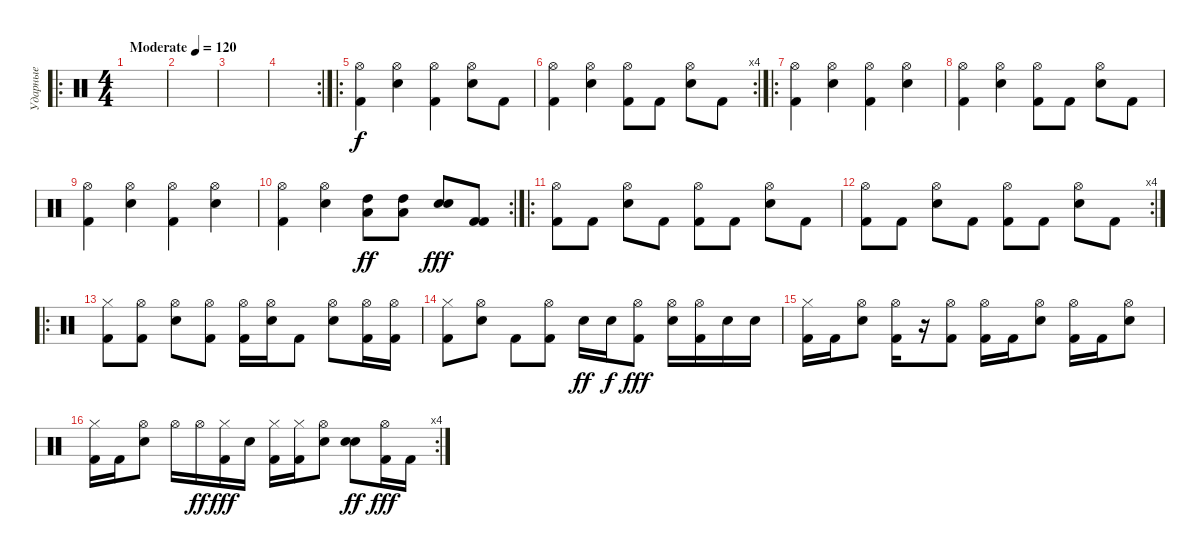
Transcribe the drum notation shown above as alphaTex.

\track ("Ударные" "Ударные") {instrument percussion}
\staff {score}
\articulation defaults
\ro
\ts (4 4)
\tempo (120 "Moderate")
\clef neutral
\ks c
|
|
|
\rc 2
|
\ro
("Hi-Hat (open)" "Kick (hit) 2").4 ("Hi-Hat (open)" "Electric Snare (hit)").4 ("Hi-Hat (open)" "Kick (hit) 2").4 ("Hi-Hat (open)" "Electric Snare (hit)").8 "Kick (hit) 2".8 |
\rc 4
("Hi-Hat (open)" "Kick (hit) 2").4 ("Hi-Hat (open)" "Electric Snare (hit)").4 ("Hi-Hat (open)" "Kick (hit) 2").8 "Kick (hit) 2".8 ("Hi-Hat (open)" "Electric Snare (hit)").8 "Kick (hit) 2".8 |
\ro
("Hi-Hat (open)" "Kick (hit) 2").4 ("Hi-Hat (open)" "Electric Snare (hit)").4 ("Hi-Hat (open)" "Kick (hit) 2").4 ("Hi-Hat (open)" "Electric Snare (hit)").4 |
("Hi-Hat (open)" "Kick (hit) 2").4 ("Hi-Hat (open)" "Electric Snare (hit)").4 ("Hi-Hat (open)" "Kick (hit) 2").8 "Kick (hit) 2".8 ("Hi-Hat (open)" "Electric Snare (hit)").8 "Kick (hit) 2".8 |
("Hi-Hat (open)" "Kick (hit) 2").4 ("Hi-Hat (open)" "Electric Snare (hit)").4 ("Hi-Hat (open)" "Kick (hit) 2").4 ("Hi-Hat (open)" "Electric Snare (hit)").4 |
\rc 2
("Hi-Hat (open)" "Kick (hit) 2").4 ("Hi-Hat (open)" "Electric Snare (hit)").4 ("Low Tom (hit)" "High Tom (hit)").8{bd 60 dy ff} ("Low Tom (hit)" "High Tom (hit)").8{bd 60} ("Electric Snare (hit)" "Electric Snare (hit)").8{bd 60 dy fff} ("Kick (hit) 2" "Kick (hit) 2").8{bd 60} |
\ro
("Hi-Hat (open)" "Kick (hit) 2").8 "Kick (hit) 2".8 ("Hi-Hat (open)" "Electric Snare (hit)").8 "Kick (hit) 2".8 ("Hi-Hat (open)" "Kick (hit) 2").8 "Kick (hit) 2".8 ("Hi-Hat (open)" "Electric Snare (hit)").8 "Kick (hit) 2".8 |
\rc 4
("Hi-Hat (open)" "Kick (hit) 2").8 "Kick (hit) 2".8 ("Hi-Hat (open)" "Electric Snare (hit)").8 "Kick (hit) 2".8 ("Hi-Hat (open)" "Kick (hit) 2").8 "Kick (hit) 2".8 ("Hi-Hat (open)" "Electric Snare (hit)").8 "Kick (hit) 2".8 |
\ro
("Hi-Hat (closed)" "Kick (hit) 2").8 ("Hi-Hat (open)" "Kick (hit) 2").8 ("Hi-Hat (open)" "Electric Snare (hit)").8 ("Hi-Hat (open)" "Kick (hit) 2").8 ("Hi-Hat (open)" "Kick (hit) 2").16 ("Hi-Hat (open)" "Electric Snare (hit)").16 "Kick (hit) 2".8 ("Hi-Hat (open)" "Electric Snare (hit)").8 ("Hi-Hat (open)" "Kick (hit) 2").16 ("Hi-Hat (open)" "Kick (hit) 2").16 |
("Hi-Hat (closed)" "Kick (hit) 2").8 ("Hi-Hat (open)" "Electric Snare (hit)").8 "Kick (hit) 2".8 ("Hi-Hat (open)" "Kick (hit) 2").8 "Electric Snare (hit)".16{dy ff} "Electric Snare (hit)".16{dy f} ("Hi-Hat (open)" "Kick (hit) 2").8{dy fff} ("Hi-Hat (open)" "Electric Snare (hit)").16 ("Hi-Hat (open)" "Kick (hit) 2").16 "Electric Snare (hit)".16 "Electric Snare (hit)".16 |
("Hi-Hat (closed)" "Kick (hit) 2").16 "Kick (hit) 2".16 ("Hi-Hat (open)" "Electric Snare (hit)").8 ("Hi-Hat (open)" "Kick (hit) 2").16 r.16 ("Hi-Hat (open)" "Kick (hit) 2").8 ("Hi-Hat (open)" "Kick (hit) 2").16 "Kick (hit) 2".16 ("Hi-Hat (open)" "Electric Snare (hit)").8 ("Hi-Hat (open)" "Kick (hit) 2").16 "Kick (hit) 2".16 ("Hi-Hat (open)" "Electric Snare (hit)").8 |
\rc 4
("Hi-Hat (closed)" "Kick (hit) 2").16 "Kick (hit) 2".16 ("Hi-Hat (open)" "Electric Snare (hit)").8 "Hi-Hat (open)".16 "Hi-Hat (open)".16{dy ff} ("Hi-Hat (closed)" "Kick (hit) 2").16{dy fff} "Electric Snare (hit)".16 ("Hi-Hat (closed)" "Kick (hit) 2").16 ("Hi-Hat (closed)" "Kick (hit) 2").16 ("Hi-Hat (open)" "Electric Snare (hit)").8 ("Electric Snare (hit)" "Electric Snare (hit)").8{bd 60 dy ff} ("Hi-Hat (open)" "Kick (hit) 2").16{dy fff} "Kick (hit) 2".16
